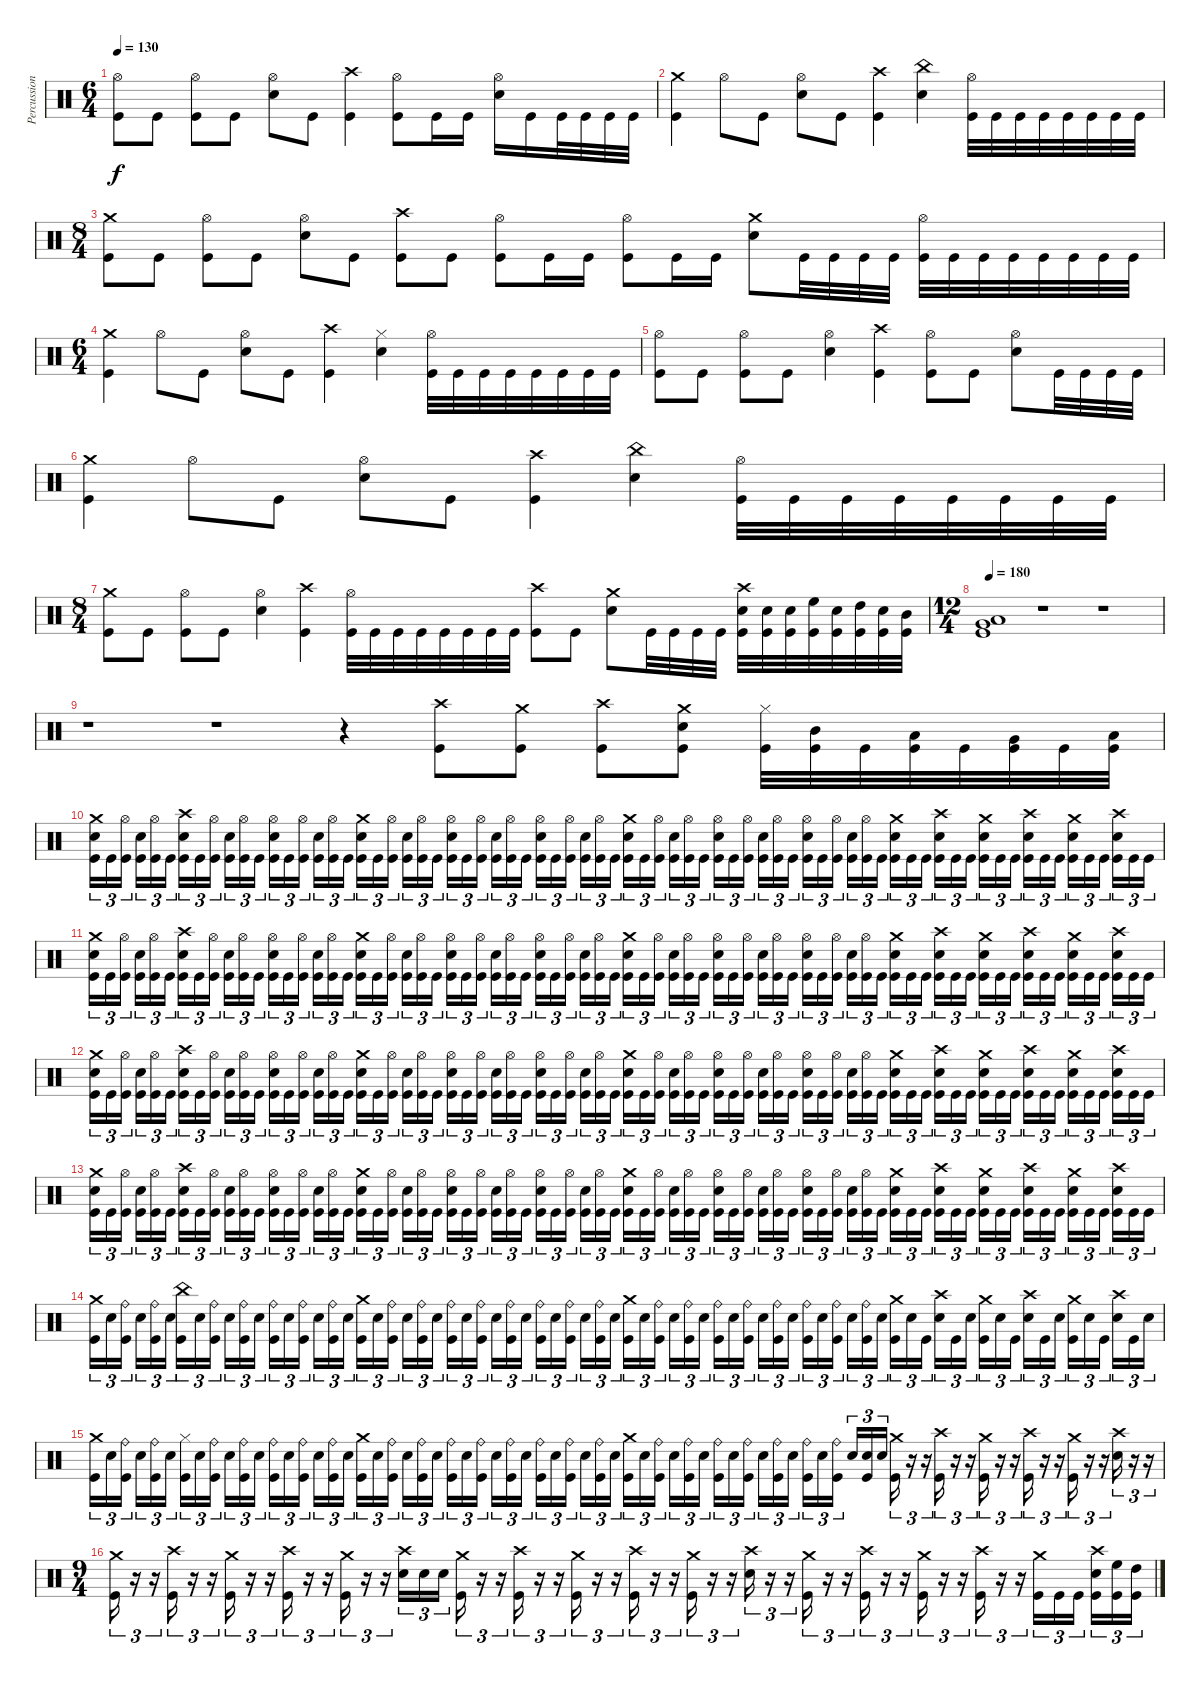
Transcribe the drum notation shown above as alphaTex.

\track ("Percussion" "Percussion") {instrument percussion}
\staff {score}
\articulation defaults
\ts (6 4)
\tempo 130
\clef neutral
\ks c
("Hi-Hat (open)" "Kick (hit)").8{dy f} "Kick (hit)".8 ("Hi-Hat (open)" "Kick (hit)").8 "Kick (hit)".8 ("Hi-Hat (open)" "Snare (hit) 2").8 "Kick (hit)".8 ("Crash high (hit)" "Kick (hit)").4 ("Hi-Hat (open)" "Kick (hit)").8 "Kick (hit)".16 "Kick (hit)".16 ("Hi-Hat (open)" "Snare (hit) 2").16 "Kick (hit)".16 "Kick (hit)".32 "Kick (hit)".32 "Kick (hit)".32 "Kick (hit)".32 |
("Crash medium (hit)" "Kick (hit)").4 "Hi-Hat (open)".8 "Kick (hit)".8 ("Hi-Hat (open)" "Snare (hit) 2").8 "Kick (hit)".8 ("Crash high (hit)" "Kick (hit)").4 ("China (hit)" "Snare (hit) 2").4 ("Hi-Hat (open)" "Kick (hit)").32 "Kick (hit)".32 "Kick (hit)".32 "Kick (hit)".32 "Kick (hit)".32 "Kick (hit)".32 "Kick (hit)".32 "Kick (hit)".32 |
\ts (8 4)
("Crash medium (hit)" "Kick (hit)").8 "Kick (hit)".8 ("Hi-Hat (open)" "Kick (hit)").8 "Kick (hit)".8 ("Hi-Hat (open)" "Snare (hit) 2").8 "Kick (hit)".8 ("Crash high (hit)" "Kick (hit)").8 "Kick (hit)".8 ("Hi-Hat (open)" "Kick (hit)").8 "Kick (hit)".16 "Kick (hit)".16 ("Hi-Hat (open)" "Kick (hit)").8 "Kick (hit)".16 "Kick (hit)".16 ("Crash medium (hit)" "Snare (hit) 2").8 "Kick (hit)".32 "Kick (hit)".32 "Kick (hit)".32 "Kick (hit)".32 ("Hi-Hat (open)" "Kick (hit)").32 "Kick (hit)".32 "Kick (hit)".32 "Kick (hit)".32 "Kick (hit)".32 "Kick (hit)".32 "Kick (hit)".32 "Kick (hit)".32 |
\ts (6 4)
("Crash medium (hit)" "Kick (hit)").4 "Hi-Hat (open)".8 "Kick (hit)".8 ("Hi-Hat (open)" "Snare (hit) 2").8 "Kick (hit)".8 ("Crash high (hit)" "Kick (hit)").4 ("Hi-Hat (closed)" "Snare (hit) 2").4 ("Hi-Hat (open)" "Kick (hit)").32 "Kick (hit)".32 "Kick (hit)".32 "Kick (hit)".32 "Kick (hit)".32 "Kick (hit)".32 "Kick (hit)".32 "Kick (hit)".32 |
("Hi-Hat (open)" "Kick (hit)").8 "Kick (hit)".8 ("Hi-Hat (open)" "Kick (hit)").8 "Kick (hit)".8 ("Hi-Hat (open)" "Snare (hit) 2").4 ("Crash high (hit)" "Kick (hit)").4 ("Hi-Hat (open)" "Kick (hit)").8 "Kick (hit)".8 ("Hi-Hat (open)" "Snare (hit) 2").8 "Kick (hit)".32 "Kick (hit)".32 "Kick (hit)".32 "Kick (hit)".32 |
("Crash medium (hit)" "Kick (hit)").4 "Hi-Hat (open)".8 "Kick (hit)".8 ("Hi-Hat (open)" "Snare (hit) 2").8 "Kick (hit)".8 ("Crash high (hit)" "Kick (hit)").4 ("China (hit)" "Snare (hit) 2").4 ("Hi-Hat (open)" "Kick (hit)").32 "Kick (hit)".32 "Kick (hit)".32 "Kick (hit)".32 "Kick (hit)".32 "Kick (hit)".32 "Kick (hit)".32 "Kick (hit)".32 |
\ts (8 4)
("Crash medium (hit)" "Kick (hit)").8 "Kick (hit)".8 ("Hi-Hat (open)" "Kick (hit)").8 "Kick (hit)".8 ("Hi-Hat (open)" "Snare (hit) 2").4 ("Crash high (hit)" "Kick (hit)").4 ("Hi-Hat (open)" "Kick (hit)").32 "Kick (hit)".32 "Kick (hit)".32 "Kick (hit)".32 "Kick (hit)".32 "Kick (hit)".32 "Kick (hit)".32 "Kick (hit)".32 ("Crash high (hit)" "Kick (hit)").8 "Kick (hit)".8 ("Crash medium (hit)" "Snare (hit) 2").8 "Kick (hit)".32 "Kick (hit)".32 "Kick (hit)".32 "Kick (hit)".32 ("Crash high (hit)" "Snare (hit) 2" "Kick (hit)").32 ("Snare (hit) 2" "Kick (hit)").32 ("Snare (hit) 2" "Kick (hit)").32 ("High Floor Tom (hit)" "Kick (hit)").32 ("Snare (hit) 2" "Kick (hit)").32 ("High Tom (hit)" "Kick (hit)").32 ("Snare (hit) 2" "Kick (hit)").32 ("Mid Tom (hit)" "Kick (hit)").32 |
\ts (12 4)
\tempo 180
("Very Low Tom (hit)" "Low Floor Tom (hit)" "Kick (hit)").1 r.1 r.1 |
r.1 r.1 r.4 ("Crash high (hit)" "Kick (hit)").8 ("Crash medium (hit)" "Kick (hit)").8 ("Crash high (hit)" "Kick (hit)").8 ("Crash medium (hit)" "Snare (hit) 2" "Kick (hit)").8 ("Hi-Hat (closed)" "Kick (hit)").32 ("Mid Tom (hit)" "Kick (hit)").32 "Kick (hit)".32 ("Low Tom (hit)" "Kick (hit)").32 "Kick (hit)".32 ("Very Low Tom (hit)" "Kick (hit)").32 "Kick (hit)".32 ("Low Floor Tom (hit)" "Kick (hit)").32 |
("Crash medium (hit)" "Snare (hit) 2" "Kick (hit)").16{tu (3 2)} "Kick (hit)".16{tu (3 2)} ("Hi-Hat (open)" "Kick (hit)").16{tu (3 2) beam splitsecondary} ("Snare (hit) 2" "Kick (hit)").16{tu (3 2)} ("Hi-Hat (open)" "Kick (hit)").16{tu (3 2)} "Kick (hit)".16{tu (3 2) beam splitsecondary} ("Crash high (hit)" "Snare (hit) 2" "Kick (hit)").16{tu (3 2)} "Kick (hit)".16{tu (3 2)} ("Hi-Hat (open)" "Kick (hit)").16{tu (3 2) beam splitsecondary} ("Snare (hit) 2" "Kick (hit)").16{tu (3 2)} ("Hi-Hat (open)" "Kick (hit)").16{tu (3 2)} "Kick (hit)".16{tu (3 2) beam splitsecondary} ("Hi-Hat (open)" "Snare (hit) 2" "Kick (hit)").16{tu (3 2)} "Kick (hit)".16{tu (3 2)} ("Hi-Hat (open)" "Kick (hit)").16{tu (3 2) beam splitsecondary} ("Snare (hit) 2" "Kick (hit)").16{tu (3 2)} ("Hi-Hat (open)" "Kick (hit)").16{tu (3 2)} "Kick (hit)".16{tu (3 2)} ("Crash medium (hit)" "Snare (hit) 2" "Kick (hit)").16{tu (3 2)} "Kick (hit)".16{tu (3 2)} ("Hi-Hat (open)" "Kick (hit)").16{tu (3 2) beam splitsecondary} ("Snare (hit) 2" "Kick (hit)").16{tu (3 2)} ("Hi-Hat (open)" "Kick (hit)").16{tu (3 2)} "Kick (hit)".16{tu (3 2) beam splitsecondary} ("Hi-Hat (open)" "Snare (hit) 2" "Kick (hit)").16{tu (3 2)} "Kick (hit)".16{tu (3 2)} ("Hi-Hat (open)" "Kick (hit)").16{tu (3 2) beam splitsecondary} ("Snare (hit) 2" "Kick (hit)").16{tu (3 2)} ("Hi-Hat (open)" "Kick (hit)").16{tu (3 2)} "Kick (hit)".16{tu (3 2) beam splitsecondary} ("Hi-Hat (open)" "Snare (hit) 2" "Kick (hit)").16{tu (3 2)} "Kick (hit)".16{tu (3 2)} ("Hi-Hat (open)" "Kick (hit)").16{tu (3 2) beam splitsecondary} ("Snare (hit) 2" "Kick (hit)").16{tu (3 2)} ("Hi-Hat (open)" "Kick (hit)").16{tu (3 2)} "Kick (hit)".16{tu (3 2)} ("Crash medium (hit)" "Snare (hit) 2" "Kick (hit)").16{tu (3 2)} "Kick (hit)".16{tu (3 2)} ("Hi-Hat (open)" "Kick (hit)").16{tu (3 2) beam splitsecondary} ("Snare (hit) 2" "Kick (hit)").16{tu (3 2)} ("Hi-Hat (open)" "Kick (hit)").16{tu (3 2)} "Kick (hit)".16{tu (3 2) beam splitsecondary} ("Hi-Hat (open)" "Snare (hit) 2" "Kick (hit)").16{tu (3 2)} "Kick (hit)".16{tu (3 2)} ("Hi-Hat (open)" "Kick (hit)").16{tu (3 2) beam splitsecondary} ("Snare (hit) 2" "Kick (hit)").16{tu (3 2)} ("Hi-Hat (open)" "Kick (hit)").16{tu (3 2)} "Kick (hit)".16{tu (3 2) beam splitsecondary} ("Hi-Hat (open)" "Snare (hit) 2" "Kick (hit)").16{tu (3 2)} "Kick (hit)".16{tu (3 2)} ("Hi-Hat (open)" "Kick (hit)").16{tu (3 2) beam splitsecondary} ("Snare (hit) 2" "Kick (hit)").16{tu (3 2)} ("Hi-Hat (open)" "Kick (hit)").16{tu (3 2)} "Kick (hit)".16{tu (3 2)} ("Crash medium (hit)" "Snare (hit) 2" "Kick (hit)").16{tu (3 2)} "Kick (hit)".16{tu (3 2)} "Kick (hit)".16{tu (3 2) beam splitsecondary} ("Crash high (hit)" "Snare (hit) 2" "Kick (hit)").16{tu (3 2)} "Kick (hit)".16{tu (3 2)} "Kick (hit)".16{tu (3 2) beam splitsecondary} ("Crash medium (hit)" "Snare (hit) 2" "Kick (hit)").16{tu (3 2)} "Kick (hit)".16{tu (3 2)} "Kick (hit)".16{tu (3 2) beam splitsecondary} ("Crash high (hit)" "Snare (hit) 2" "Kick (hit)").16{tu (3 2)} "Kick (hit)".16{tu (3 2)} "Kick (hit)".16{tu (3 2) beam splitsecondary} ("Crash medium (hit)" "Snare (hit) 2" "Kick (hit)").16{tu (3 2)} "Kick (hit)".16{tu (3 2)} "Kick (hit)".16{tu (3 2) beam splitsecondary} ("Crash high (hit)" "Snare (hit) 2" "Kick (hit)").16{tu (3 2)} "Kick (hit)".16{tu (3 2)} "Kick (hit)".16{tu (3 2)} |
("Crash medium (hit)" "Snare (hit) 2" "Kick (hit)").16{tu (3 2)} "Kick (hit)".16{tu (3 2)} ("Hi-Hat (open)" "Kick (hit)").16{tu (3 2) beam splitsecondary} ("Snare (hit) 2" "Kick (hit)").16{tu (3 2)} ("Hi-Hat (open)" "Kick (hit)").16{tu (3 2)} "Kick (hit)".16{tu (3 2) beam splitsecondary} ("Crash high (hit)" "Snare (hit) 2" "Kick (hit)").16{tu (3 2)} "Kick (hit)".16{tu (3 2)} ("Hi-Hat (open)" "Kick (hit)").16{tu (3 2) beam splitsecondary} ("Snare (hit) 2" "Kick (hit)").16{tu (3 2)} ("Hi-Hat (open)" "Kick (hit)").16{tu (3 2)} "Kick (hit)".16{tu (3 2) beam splitsecondary} ("Hi-Hat (open)" "Snare (hit) 2" "Kick (hit)").16{tu (3 2)} "Kick (hit)".16{tu (3 2)} ("Hi-Hat (open)" "Kick (hit)").16{tu (3 2) beam splitsecondary} ("Snare (hit) 2" "Kick (hit)").16{tu (3 2)} ("Hi-Hat (open)" "Kick (hit)").16{tu (3 2)} "Kick (hit)".16{tu (3 2)} ("Crash medium (hit)" "Snare (hit) 2" "Kick (hit)").16{tu (3 2)} "Kick (hit)".16{tu (3 2)} ("Hi-Hat (open)" "Kick (hit)").16{tu (3 2) beam splitsecondary} ("Snare (hit) 2" "Kick (hit)").16{tu (3 2)} ("Hi-Hat (open)" "Kick (hit)").16{tu (3 2)} "Kick (hit)".16{tu (3 2) beam splitsecondary} ("Hi-Hat (open)" "Snare (hit) 2" "Kick (hit)").16{tu (3 2)} "Kick (hit)".16{tu (3 2)} ("Hi-Hat (open)" "Kick (hit)").16{tu (3 2) beam splitsecondary} ("Snare (hit) 2" "Kick (hit)").16{tu (3 2)} ("Hi-Hat (open)" "Kick (hit)").16{tu (3 2)} "Kick (hit)".16{tu (3 2) beam splitsecondary} ("Hi-Hat (open)" "Snare (hit) 2" "Kick (hit)").16{tu (3 2)} "Kick (hit)".16{tu (3 2)} ("Hi-Hat (open)" "Kick (hit)").16{tu (3 2) beam splitsecondary} ("Snare (hit) 2" "Kick (hit)").16{tu (3 2)} ("Hi-Hat (open)" "Kick (hit)").16{tu (3 2)} "Kick (hit)".16{tu (3 2)} ("Crash medium (hit)" "Snare (hit) 2" "Kick (hit)").16{tu (3 2)} "Kick (hit)".16{tu (3 2)} ("Hi-Hat (open)" "Kick (hit)").16{tu (3 2) beam splitsecondary} ("Snare (hit) 2" "Kick (hit)").16{tu (3 2)} ("Hi-Hat (open)" "Kick (hit)").16{tu (3 2)} "Kick (hit)".16{tu (3 2) beam splitsecondary} ("Hi-Hat (open)" "Snare (hit) 2" "Kick (hit)").16{tu (3 2)} "Kick (hit)".16{tu (3 2)} ("Hi-Hat (open)" "Kick (hit)").16{tu (3 2) beam splitsecondary} ("Snare (hit) 2" "Kick (hit)").16{tu (3 2)} ("Hi-Hat (open)" "Kick (hit)").16{tu (3 2)} "Kick (hit)".16{tu (3 2) beam splitsecondary} ("Hi-Hat (open)" "Snare (hit) 2" "Kick (hit)").16{tu (3 2)} "Kick (hit)".16{tu (3 2)} ("Hi-Hat (open)" "Kick (hit)").16{tu (3 2) beam splitsecondary} ("Snare (hit) 2" "Kick (hit)").16{tu (3 2)} ("Hi-Hat (open)" "Kick (hit)").16{tu (3 2)} "Kick (hit)".16{tu (3 2)} ("Crash medium (hit)" "Snare (hit) 2" "Kick (hit)").16{tu (3 2)} "Kick (hit)".16{tu (3 2)} "Kick (hit)".16{tu (3 2) beam splitsecondary} ("Crash high (hit)" "Snare (hit) 2" "Kick (hit)").16{tu (3 2)} "Kick (hit)".16{tu (3 2)} "Kick (hit)".16{tu (3 2) beam splitsecondary} ("Crash medium (hit)" "Snare (hit) 2" "Kick (hit)").16{tu (3 2)} "Kick (hit)".16{tu (3 2)} "Kick (hit)".16{tu (3 2) beam splitsecondary} ("Crash high (hit)" "Snare (hit) 2" "Kick (hit)").16{tu (3 2)} "Kick (hit)".16{tu (3 2)} "Kick (hit)".16{tu (3 2) beam splitsecondary} ("Crash medium (hit)" "Snare (hit) 2" "Kick (hit)").16{tu (3 2)} "Kick (hit)".16{tu (3 2)} "Kick (hit)".16{tu (3 2) beam splitsecondary} ("Crash high (hit)" "Snare (hit) 2" "Kick (hit)").16{tu (3 2)} "Kick (hit)".16{tu (3 2)} "Kick (hit)".16{tu (3 2)} |
("Crash medium (hit)" "Snare (hit) 2" "Kick (hit)").16{tu (3 2)} "Kick (hit)".16{tu (3 2)} ("Hi-Hat (open)" "Kick (hit)").16{tu (3 2) beam splitsecondary} ("Snare (hit) 2" "Kick (hit)").16{tu (3 2)} ("Hi-Hat (open)" "Kick (hit)").16{tu (3 2)} "Kick (hit)".16{tu (3 2) beam splitsecondary} ("Crash high (hit)" "Snare (hit) 2" "Kick (hit)").16{tu (3 2)} "Kick (hit)".16{tu (3 2)} ("Hi-Hat (open)" "Kick (hit)").16{tu (3 2) beam splitsecondary} ("Snare (hit) 2" "Kick (hit)").16{tu (3 2)} ("Hi-Hat (open)" "Kick (hit)").16{tu (3 2)} "Kick (hit)".16{tu (3 2) beam splitsecondary} ("Hi-Hat (open)" "Snare (hit) 2" "Kick (hit)").16{tu (3 2)} "Kick (hit)".16{tu (3 2)} ("Hi-Hat (open)" "Kick (hit)").16{tu (3 2) beam splitsecondary} ("Snare (hit) 2" "Kick (hit)").16{tu (3 2)} ("Hi-Hat (open)" "Kick (hit)").16{tu (3 2)} "Kick (hit)".16{tu (3 2)} ("Crash medium (hit)" "Snare (hit) 2" "Kick (hit)").16{tu (3 2)} "Kick (hit)".16{tu (3 2)} ("Hi-Hat (open)" "Kick (hit)").16{tu (3 2) beam splitsecondary} ("Snare (hit) 2" "Kick (hit)").16{tu (3 2)} ("Hi-Hat (open)" "Kick (hit)").16{tu (3 2)} "Kick (hit)".16{tu (3 2) beam splitsecondary} ("Hi-Hat (open)" "Snare (hit) 2" "Kick (hit)").16{tu (3 2)} "Kick (hit)".16{tu (3 2)} ("Hi-Hat (open)" "Kick (hit)").16{tu (3 2) beam splitsecondary} ("Snare (hit) 2" "Kick (hit)").16{tu (3 2)} ("Hi-Hat (open)" "Kick (hit)").16{tu (3 2)} "Kick (hit)".16{tu (3 2) beam splitsecondary} ("Hi-Hat (open)" "Snare (hit) 2" "Kick (hit)").16{tu (3 2)} "Kick (hit)".16{tu (3 2)} ("Hi-Hat (open)" "Kick (hit)").16{tu (3 2) beam splitsecondary} ("Snare (hit) 2" "Kick (hit)").16{tu (3 2)} ("Hi-Hat (open)" "Kick (hit)").16{tu (3 2)} "Kick (hit)".16{tu (3 2)} ("Crash medium (hit)" "Snare (hit) 2" "Kick (hit)").16{tu (3 2)} "Kick (hit)".16{tu (3 2)} ("Hi-Hat (open)" "Kick (hit)").16{tu (3 2) beam splitsecondary} ("Snare (hit) 2" "Kick (hit)").16{tu (3 2)} ("Hi-Hat (open)" "Kick (hit)").16{tu (3 2)} "Kick (hit)".16{tu (3 2) beam splitsecondary} ("Hi-Hat (open)" "Snare (hit) 2" "Kick (hit)").16{tu (3 2)} "Kick (hit)".16{tu (3 2)} ("Hi-Hat (open)" "Kick (hit)").16{tu (3 2) beam splitsecondary} ("Snare (hit) 2" "Kick (hit)").16{tu (3 2)} ("Hi-Hat (open)" "Kick (hit)").16{tu (3 2)} "Kick (hit)".16{tu (3 2) beam splitsecondary} ("Hi-Hat (open)" "Snare (hit) 2" "Kick (hit)").16{tu (3 2)} "Kick (hit)".16{tu (3 2)} ("Hi-Hat (open)" "Kick (hit)").16{tu (3 2) beam splitsecondary} ("Snare (hit) 2" "Kick (hit)").16{tu (3 2)} ("Hi-Hat (open)" "Kick (hit)").16{tu (3 2)} "Kick (hit)".16{tu (3 2)} ("Crash medium (hit)" "Snare (hit) 2" "Kick (hit)").16{tu (3 2)} "Kick (hit)".16{tu (3 2)} "Kick (hit)".16{tu (3 2) beam splitsecondary} ("Crash high (hit)" "Snare (hit) 2" "Kick (hit)").16{tu (3 2)} "Kick (hit)".16{tu (3 2)} "Kick (hit)".16{tu (3 2) beam splitsecondary} ("Crash medium (hit)" "Snare (hit) 2" "Kick (hit)").16{tu (3 2)} "Kick (hit)".16{tu (3 2)} "Kick (hit)".16{tu (3 2) beam splitsecondary} ("Crash high (hit)" "Snare (hit) 2" "Kick (hit)").16{tu (3 2)} "Kick (hit)".16{tu (3 2)} "Kick (hit)".16{tu (3 2) beam splitsecondary} ("Crash medium (hit)" "Snare (hit) 2" "Kick (hit)").16{tu (3 2)} "Kick (hit)".16{tu (3 2)} "Kick (hit)".16{tu (3 2) beam splitsecondary} ("Crash high (hit)" "Snare (hit) 2" "Kick (hit)").16{tu (3 2)} "Kick (hit)".16{tu (3 2)} "Kick (hit)".16{tu (3 2)} |
("Crash medium (hit)" "Snare (hit) 2" "Kick (hit)").16{tu (3 2)} "Kick (hit)".16{tu (3 2)} ("Hi-Hat (open)" "Kick (hit)").16{tu (3 2) beam splitsecondary} ("Snare (hit) 2" "Kick (hit)").16{tu (3 2)} ("Hi-Hat (open)" "Kick (hit)").16{tu (3 2)} "Kick (hit)".16{tu (3 2) beam splitsecondary} ("Crash high (hit)" "Snare (hit) 2" "Kick (hit)").16{tu (3 2)} "Kick (hit)".16{tu (3 2)} ("Hi-Hat (open)" "Kick (hit)").16{tu (3 2) beam splitsecondary} ("Snare (hit) 2" "Kick (hit)").16{tu (3 2)} ("Hi-Hat (open)" "Kick (hit)").16{tu (3 2)} "Kick (hit)".16{tu (3 2) beam splitsecondary} ("Hi-Hat (open)" "Snare (hit) 2" "Kick (hit)").16{tu (3 2)} "Kick (hit)".16{tu (3 2)} ("Hi-Hat (open)" "Kick (hit)").16{tu (3 2) beam splitsecondary} ("Snare (hit) 2" "Kick (hit)").16{tu (3 2)} ("Hi-Hat (open)" "Kick (hit)").16{tu (3 2)} "Kick (hit)".16{tu (3 2)} ("Crash medium (hit)" "Snare (hit) 2" "Kick (hit)").16{tu (3 2)} "Kick (hit)".16{tu (3 2)} ("Hi-Hat (open)" "Kick (hit)").16{tu (3 2) beam splitsecondary} ("Snare (hit) 2" "Kick (hit)").16{tu (3 2)} ("Hi-Hat (open)" "Kick (hit)").16{tu (3 2)} "Kick (hit)".16{tu (3 2) beam splitsecondary} ("Hi-Hat (open)" "Snare (hit) 2" "Kick (hit)").16{tu (3 2)} "Kick (hit)".16{tu (3 2)} ("Hi-Hat (open)" "Kick (hit)").16{tu (3 2) beam splitsecondary} ("Snare (hit) 2" "Kick (hit)").16{tu (3 2)} ("Hi-Hat (open)" "Kick (hit)").16{tu (3 2)} "Kick (hit)".16{tu (3 2) beam splitsecondary} ("Hi-Hat (open)" "Snare (hit) 2" "Kick (hit)").16{tu (3 2)} "Kick (hit)".16{tu (3 2)} ("Hi-Hat (open)" "Kick (hit)").16{tu (3 2) beam splitsecondary} ("Snare (hit) 2" "Kick (hit)").16{tu (3 2)} ("Hi-Hat (open)" "Kick (hit)").16{tu (3 2)} "Kick (hit)".16{tu (3 2)} ("Crash medium (hit)" "Snare (hit) 2" "Kick (hit)").16{tu (3 2)} "Kick (hit)".16{tu (3 2)} ("Hi-Hat (open)" "Kick (hit)").16{tu (3 2) beam splitsecondary} ("Snare (hit) 2" "Kick (hit)").16{tu (3 2)} ("Hi-Hat (open)" "Kick (hit)").16{tu (3 2)} "Kick (hit)".16{tu (3 2) beam splitsecondary} ("Hi-Hat (open)" "Snare (hit) 2" "Kick (hit)").16{tu (3 2)} "Kick (hit)".16{tu (3 2)} ("Hi-Hat (open)" "Kick (hit)").16{tu (3 2) beam splitsecondary} ("Snare (hit) 2" "Kick (hit)").16{tu (3 2)} ("Hi-Hat (open)" "Kick (hit)").16{tu (3 2)} "Kick (hit)".16{tu (3 2) beam splitsecondary} ("Hi-Hat (open)" "Snare (hit) 2" "Kick (hit)").16{tu (3 2)} "Kick (hit)".16{tu (3 2)} ("Hi-Hat (open)" "Kick (hit)").16{tu (3 2) beam splitsecondary} ("Snare (hit) 2" "Kick (hit)").16{tu (3 2)} ("Hi-Hat (open)" "Kick (hit)").16{tu (3 2)} "Kick (hit)".16{tu (3 2)} ("Crash medium (hit)" "Snare (hit) 2" "Kick (hit)").16{tu (3 2)} "Kick (hit)".16{tu (3 2)} "Kick (hit)".16{tu (3 2) beam splitsecondary} ("Crash high (hit)" "Snare (hit) 2" "Kick (hit)").16{tu (3 2)} "Kick (hit)".16{tu (3 2)} "Kick (hit)".16{tu (3 2) beam splitsecondary} ("Crash medium (hit)" "Snare (hit) 2" "Kick (hit)").16{tu (3 2)} "Kick (hit)".16{tu (3 2)} "Kick (hit)".16{tu (3 2) beam splitsecondary} ("Crash high (hit)" "Snare (hit) 2" "Kick (hit)").16{tu (3 2)} "Kick (hit)".16{tu (3 2)} "Kick (hit)".16{tu (3 2) beam splitsecondary} ("Crash medium (hit)" "Snare (hit) 2" "Kick (hit)").16{tu (3 2)} "Kick (hit)".16{tu (3 2)} "Kick (hit)".16{tu (3 2) beam splitsecondary} ("Crash high (hit)" "Snare (hit) 2" "Kick (hit)").16{tu (3 2)} "Kick (hit)".16{tu (3 2)} "Kick (hit)".16{tu (3 2)} |
("Crash medium (hit)" "Kick (hit)").16{tu (3 2)} "Snare (hit) 2".16{tu (3 2)} ("Ride (bell)" "Kick (hit)").16{tu (3 2) beam splitsecondary} "Snare (hit) 2".16{tu (3 2)} ("Ride (bell)" "Kick (hit)").16{tu (3 2)} "Snare (hit) 2".16{tu (3 2) beam splitsecondary} ("China (hit)" "Kick (hit)").16{tu (3 2)} "Snare (hit) 2".16{tu (3 2)} ("Ride (bell)" "Kick (hit)").16{tu (3 2) beam splitsecondary} "Snare (hit) 2".16{tu (3 2)} ("Ride (bell)" "Kick (hit)").16{tu (3 2)} "Snare (hit) 2".16{tu (3 2) beam splitsecondary} ("Ride (bell)" "Kick (hit)").16{tu (3 2)} "Snare (hit) 2".16{tu (3 2)} ("Ride (bell)" "Kick (hit)").16{tu (3 2) beam splitsecondary} "Snare (hit) 2".16{tu (3 2)} ("Ride (bell)" "Kick (hit)").16{tu (3 2)} "Snare (hit) 2".16{tu (3 2)} ("Crash medium (hit)" "Kick (hit)").16{tu (3 2)} "Snare (hit) 2".16{tu (3 2)} ("Ride (bell)" "Kick (hit)").16{tu (3 2) beam splitsecondary} "Snare (hit) 2".16{tu (3 2)} ("Ride (bell)" "Kick (hit)").16{tu (3 2)} "Snare (hit) 2".16{tu (3 2) beam splitsecondary} ("Ride (bell)" "Kick (hit)").16{tu (3 2)} "Snare (hit) 2".16{tu (3 2)} ("Ride (bell)" "Kick (hit)").16{tu (3 2) beam splitsecondary} "Snare (hit) 2".16{tu (3 2)} ("Ride (bell)" "Kick (hit)").16{tu (3 2)} "Snare (hit) 2".16{tu (3 2) beam splitsecondary} ("Ride (bell)" "Kick (hit)").16{tu (3 2)} "Snare (hit) 2".16{tu (3 2)} ("Ride (bell)" "Kick (hit)").16{tu (3 2) beam splitsecondary} "Snare (hit) 2".16{tu (3 2)} ("Ride (bell)" "Kick (hit)").16{tu (3 2)} "Snare (hit) 2".16{tu (3 2)} ("Crash medium (hit)" "Kick (hit)").16{tu (3 2)} "Snare (hit) 2".16{tu (3 2)} ("Ride (bell)" "Kick (hit)").16{tu (3 2) beam splitsecondary} "Snare (hit) 2".16{tu (3 2)} ("Ride (bell)" "Kick (hit)").16{tu (3 2)} "Snare (hit) 2".16{tu (3 2) beam splitsecondary} ("Ride (bell)" "Kick (hit)").16{tu (3 2)} "Snare (hit) 2".16{tu (3 2)} ("Ride (bell)" "Kick (hit)").16{tu (3 2) beam splitsecondary} "Snare (hit) 2".16{tu (3 2)} ("Ride (bell)" "Kick (hit)").16{tu (3 2)} "Snare (hit) 2".16{tu (3 2) beam splitsecondary} ("Ride (bell)" "Kick (hit)").16{tu (3 2)} "Snare (hit) 2".16{tu (3 2)} ("Ride (bell)" "Kick (hit)").16{tu (3 2) beam splitsecondary} "Snare (hit) 2".16{tu (3 2)} ("Ride (bell)" "Kick (hit)").16{tu (3 2)} "Snare (hit) 2".16{tu (3 2)} ("Crash medium (hit)" "Kick (hit)").16{tu (3 2)} "Snare (hit) 2".16{tu (3 2)} "Kick (hit)".16{tu (3 2) beam splitsecondary} ("Crash high (hit)" "Snare (hit) 2").16{tu (3 2)} "Kick (hit)".16{tu (3 2)} "Snare (hit) 2".16{tu (3 2) beam splitsecondary} ("Crash medium (hit)" "Kick (hit)").16{tu (3 2)} "Snare (hit) 2".16{tu (3 2)} "Kick (hit)".16{tu (3 2) beam splitsecondary} ("Crash high (hit)" "Snare (hit) 2").16{tu (3 2)} "Kick (hit)".16{tu (3 2)} "Snare (hit) 2".16{tu (3 2) beam splitsecondary} ("Crash medium (hit)" "Kick (hit)").16{tu (3 2)} "Snare (hit) 2".16{tu (3 2)} "Kick (hit)".16{tu (3 2) beam splitsecondary} ("Crash high (hit)" "Snare (hit) 2").16{tu (3 2)} "Kick (hit)".16{tu (3 2)} "Snare (hit) 2".16{tu (3 2)} |
("Crash medium (hit)" "Kick (hit)").16{tu (3 2)} "Snare (hit) 2".16{tu (3 2)} ("Ride (bell)" "Kick (hit)").16{tu (3 2) beam splitsecondary} "Snare (hit) 2".16{tu (3 2)} ("Ride (bell)" "Kick (hit)").16{tu (3 2)} "Snare (hit) 2".16{tu (3 2) beam splitsecondary} ("Hi-Hat (closed)" "Kick (hit)").16{tu (3 2)} "Snare (hit) 2".16{tu (3 2)} ("Ride (bell)" "Kick (hit)").16{tu (3 2) beam splitsecondary} "Snare (hit) 2".16{tu (3 2)} ("Ride (bell)" "Kick (hit)").16{tu (3 2)} "Snare (hit) 2".16{tu (3 2) beam splitsecondary} ("Ride (bell)" "Kick (hit)").16{tu (3 2)} "Snare (hit) 2".16{tu (3 2)} ("Ride (bell)" "Kick (hit)").16{tu (3 2) beam splitsecondary} "Snare (hit) 2".16{tu (3 2)} ("Ride (bell)" "Kick (hit)").16{tu (3 2)} "Snare (hit) 2".16{tu (3 2)} ("Crash medium (hit)" "Kick (hit)").16{tu (3 2)} "Snare (hit) 2".16{tu (3 2)} ("Ride (bell)" "Kick (hit)").16{tu (3 2) beam splitsecondary} "Snare (hit) 2".16{tu (3 2)} ("Ride (bell)" "Kick (hit)").16{tu (3 2)} "Snare (hit) 2".16{tu (3 2) beam splitsecondary} ("Ride (bell)" "Kick (hit)").16{tu (3 2)} "Snare (hit) 2".16{tu (3 2)} ("Ride (bell)" "Kick (hit)").16{tu (3 2) beam splitsecondary} "Snare (hit) 2".16{tu (3 2)} ("Ride (bell)" "Kick (hit)").16{tu (3 2)} "Snare (hit) 2".16{tu (3 2) beam splitsecondary} ("Ride (bell)" "Kick (hit)").16{tu (3 2)} "Snare (hit) 2".16{tu (3 2)} ("Ride (bell)" "Kick (hit)").16{tu (3 2) beam splitsecondary} "Snare (hit) 2".16{tu (3 2)} ("Ride (bell)" "Kick (hit)").16{tu (3 2)} "Snare (hit) 2".16{tu (3 2)} ("Crash medium (hit)" "Kick (hit)").16{tu (3 2)} "Snare (hit) 2".16{tu (3 2)} ("Ride (bell)" "Kick (hit)").16{tu (3 2) beam splitsecondary} "Snare (hit) 2".16{tu (3 2)} ("Ride (bell)" "Kick (hit)").16{tu (3 2)} "Snare (hit) 2".16{tu (3 2) beam splitsecondary} ("Ride (bell)" "Kick (hit)").16{tu (3 2)} "Snare (hit) 2".16{tu (3 2)} ("Ride (bell)" "Kick (hit)").16{tu (3 2) beam splitsecondary} "Snare (hit) 2".16{tu (3 2)} ("Ride (bell)" "Kick (hit)").16{tu (3 2)} "Snare (hit) 2".16{tu (3 2) beam splitsecondary} ("Ride (bell)" "Kick (hit)").16{tu (3 2)} "Snare (hit) 2".16{tu (3 2)} ("Ride (bell)" "Kick (hit)").16{tu (3 2) beam splitsecondary} "Snare (hit) 2".16{tu (3 2)} ("Snare (hit) 2" "Kick (hit)").16{tu (3 2)} "Snare (hit) 2".16{tu (3 2)} ("Crash medium (hit)" "Kick (hit)").16{tu (3 2)} r.16{tu (3 2)} r.16{tu (3 2)} ("Crash high (hit)" "Kick (hit)").16{tu (3 2)} r.16{tu (3 2)} r.16{tu (3 2)} ("Crash medium (hit)" "Kick (hit)").16{tu (3 2)} r.16{tu (3 2)} r.16{tu (3 2)} ("Crash high (hit)" "Kick (hit)").16{tu (3 2)} r.16{tu (3 2)} r.16{tu (3 2)} ("Crash medium (hit)" "Kick (hit)").16{tu (3 2)} r.16{tu (3 2)} r.16{tu (3 2)} ("Crash high (hit)" "Snare (hit) 2").16{tu (3 2)} r.16{tu (3 2)} r.16{tu (3 2)} |
\ts (9 4)
("Crash medium (hit)" "Kick (hit)").16{tu (3 2)} r.16{tu (3 2)} r.16{tu (3 2)} ("Crash high (hit)" "Kick (hit)").16{tu (3 2)} r.16{tu (3 2)} r.16{tu (3 2)} ("Crash medium (hit)" "Kick (hit)").16{tu (3 2)} r.16{tu (3 2)} r.16{tu (3 2)} ("Crash high (hit)" "Kick (hit)").16{tu (3 2)} r.16{tu (3 2)} r.16{tu (3 2)} ("Crash medium (hit)" "Kick (hit)").16{tu (3 2)} r.16{tu (3 2)} r.16{tu (3 2)} ("Crash high (hit)" "Snare (hit) 2").16{tu (3 2)} "Snare (hit) 2".16{tu (3 2)} "Snare (hit) 2".16{tu (3 2)} ("Crash medium (hit)" "Kick (hit)").16{tu (3 2)} r.16{tu (3 2)} r.16{tu (3 2)} ("Crash high (hit)" "Kick (hit)").16{tu (3 2)} r.16{tu (3 2)} r.16{tu (3 2)} ("Crash medium (hit)" "Kick (hit)").16{tu (3 2)} r.16{tu (3 2)} r.16{tu (3 2)} ("Crash high (hit)" "Kick (hit)").16{tu (3 2)} r.16{tu (3 2)} r.16{tu (3 2)} ("Crash medium (hit)" "Kick (hit)").16{tu (3 2)} r.16{tu (3 2)} r.16{tu (3 2)} ("Crash high (hit)" "Snare (hit) 2").16{tu (3 2)} r.16{tu (3 2)} r.16{tu (3 2)} ("Crash medium (hit)" "Kick (hit)").16{tu (3 2)} r.16{tu (3 2)} r.16{tu (3 2)} ("Crash high (hit)" "Kick (hit)").16{tu (3 2)} r.16{tu (3 2)} r.16{tu (3 2)} ("Crash medium (hit)" "Kick (hit)").16{tu (3 2)} r.16{tu (3 2)} r.16{tu (3 2)} ("Crash high (hit)" "Kick (hit)").16{tu (3 2)} r.16{tu (3 2)} r.16{tu (3 2)} ("Crash medium (hit)" "Kick (hit)").16{tu (3 2)} "Kick (hit)".16{tu (3 2)} "Kick (hit)".16{tu (3 2) beam splitsecondary} ("Crash high (hit)" "Snare (hit) 2" "Kick (hit)").16{tu (3 2)} ("High Floor Tom (hit)" "Kick (hit)").16{tu (3 2)} ("High Tom (hit)" "Kick (hit)").16{tu (3 2)}
